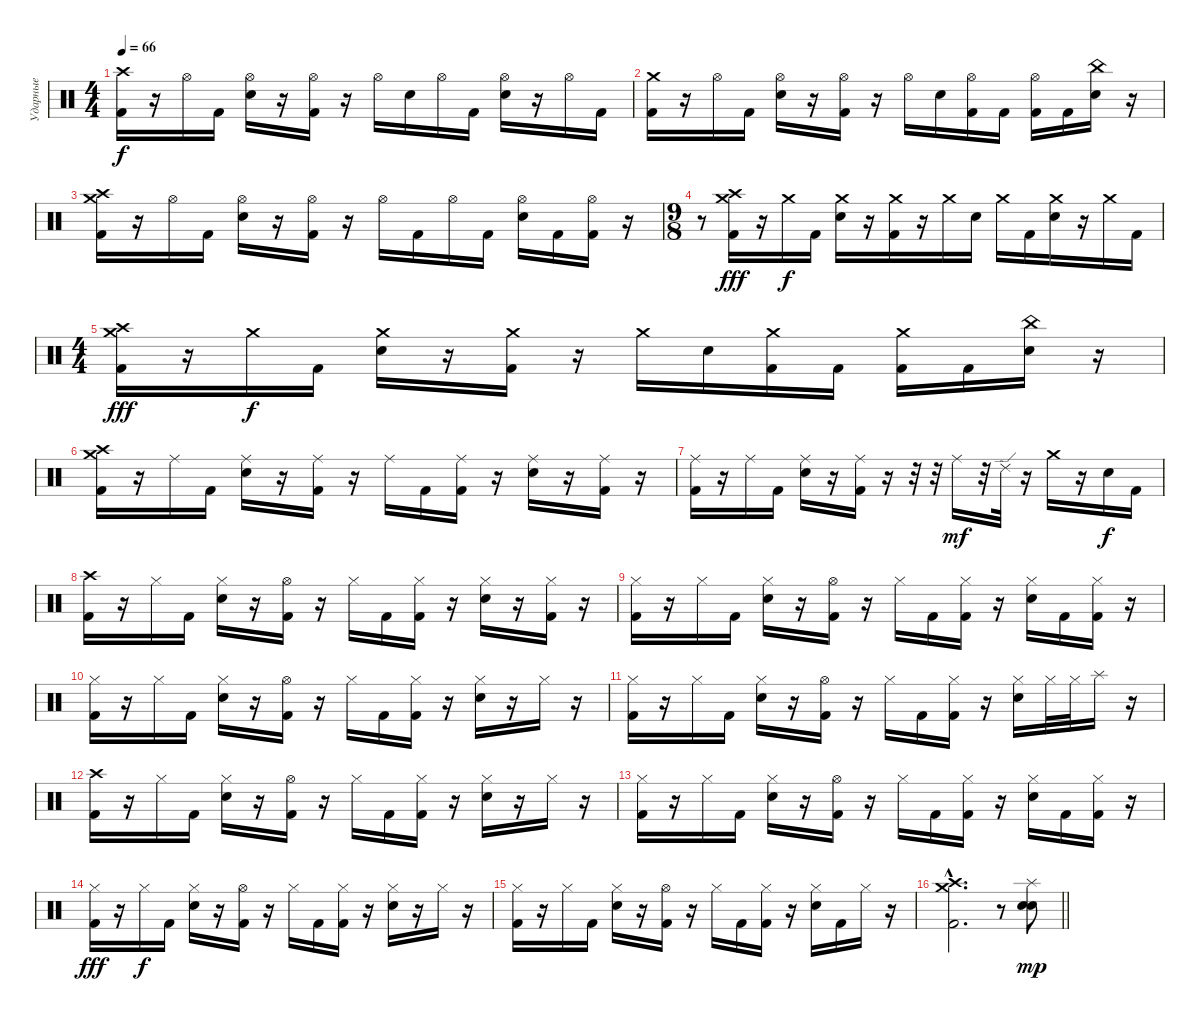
\track ("Ударные" "Ударные") {instrument percussion}
\staff {score}
\articulation defaults
\ts (4 4)
\tempo 66
\clef neutral
\ks c
("Crash high (hit)" "Kick (hit) 2").16{dy f} r.16 "Hi-Hat (open)".16 "Kick (hit) 2".16 ("Hi-Hat (open)" "Electric Snare (hit)").16 r.16 ("Hi-Hat (open)" "Kick (hit) 2").16 r.16 "Hi-Hat (open)".16 "Electric Snare (hit)".16 "Hi-Hat (open)".16 "Kick (hit) 2".16 ("Hi-Hat (open)" "Electric Snare (hit)").16 r.16 "Hi-Hat (open)".16 "Kick (hit) 2".16 |
("Crash medium (hit)" "Kick (hit) 2").16 r.16 "Hi-Hat (open)".16 "Kick (hit) 2".16 ("Hi-Hat (open)" "Electric Snare (hit)").16 r.16 ("Hi-Hat (open)" "Kick (hit) 2").16 r.16 "Hi-Hat (open)".16 "Electric Snare (hit)".16 ("Hi-Hat (open)" "Kick (hit) 2").16 "Kick (hit) 2".16 ("Hi-Hat (open)" "Kick (hit) 2").16 "Kick (hit) 2".16 ("China (hit)" "Electric Snare (hit)").16 r.16 |
("Crash medium (hit)" "Crash high (hit)" "Kick (hit) 2").16 r.16 "Hi-Hat (open)".16 "Kick (hit) 2".16 ("Hi-Hat (open)" "Electric Snare (hit)").16 r.16 ("Hi-Hat (open)" "Kick (hit) 2").16 r.16 "Hi-Hat (open)".16 "Kick (hit) 2".16 "Hi-Hat (open)".16 "Kick (hit) 2".16 ("Hi-Hat (open)" "Electric Snare (hit)").16 "Kick (hit) 2".16 ("Hi-Hat (open)" "Kick (hit) 2").16 r.16 |
\ts (9 8)
r.8 ("Crash medium (hit)" "Crash high (hit)" "Kick (hit) 2").16{dy fff} r.16 "Crash medium (hit)".16{dy f} "Kick (hit) 2".16 ("Crash medium (hit)" "Electric Snare (hit)").16 r.16 ("Crash medium (hit)" "Kick (hit) 2").16 r.16 "Crash medium (hit)".16 "Electric Snare (hit)".16 "Crash medium (hit)".16 "Kick (hit) 2".16 ("Crash medium (hit)" "Electric Snare (hit)").16 r.16 "Crash medium (hit)".16 "Kick (hit) 2".16 |
\ts (4 4)
("Crash medium (hit)" "Crash high (hit)" "Kick (hit) 2").16{dy fff} r.16 "Crash medium (hit)".16{dy f} "Kick (hit) 2".16 ("Crash medium (hit)" "Electric Snare (hit)").16 r.16 ("Crash medium (hit)" "Kick (hit) 2").16 r.16 "Crash medium (hit)".16 "Electric Snare (hit)".16 ("Crash medium (hit)" "Kick (hit) 2").16 "Kick (hit) 2".16 ("Crash medium (hit)" "Kick (hit) 2").16 "Kick (hit) 2".16 ("China (hit)" "Electric Snare (hit)").16 r.16 |
("Crash medium (hit)" "Crash high (hit)" "Kick (hit) 2").16 r.16 "Ride (middle)".16 "Kick (hit) 2".16 ("Ride (middle)" "Electric Snare (hit)").16 r.16 ("Ride (middle)" "Kick (hit) 2").16 r.16 "Ride (middle)".16 "Kick (hit) 2".16 ("Ride (middle)" "Kick (hit) 2").16 r.16 ("Ride (middle)" "Electric Snare (hit)").16 r.16 ("Ride (middle)" "Kick (hit) 2").16 r.16 |
("Ride (middle)" "Kick (hit) 2").16 r.16 "Ride (middle)".16 "Kick (hit) 2".16 ("Ride (middle)" "Electric Snare (hit)").16 r.16 ("Ride (middle)" "Kick (hit) 2").16 r.16 r.32 r.32 "Ride (middle)".16{dy mf} r.32 "Ride (edge) 2".32 r.16 "Crash medium (hit)".16 r.16 "Electric Snare (hit)".16{dy f} "Kick (hit) 2".16 |
("Crash high (hit)" "Kick (hit) 2").16 r.16 "Hi-Hat (closed)".16 "Kick (hit) 2".16 ("Hi-Hat (closed)" "Electric Snare (hit)").16 r.16 ("Hi-Hat (open)" "Kick (hit) 2").16 r.16 "Hi-Hat (closed)".16 "Kick (hit) 2".16 ("Hi-Hat (closed)" "Kick (hit) 2").16 r.16 ("Hi-Hat (closed)" "Electric Snare (hit)").16 r.16 ("Hi-Hat (closed)" "Kick (hit) 2").16 r.16 |
("Hi-Hat (closed)" "Kick (hit) 2").16 r.16 "Hi-Hat (closed)".16 "Kick (hit) 2".16 ("Hi-Hat (closed)" "Electric Snare (hit)").16 r.16 ("Hi-Hat (open)" "Kick (hit) 2").16 r.16 "Hi-Hat (closed)".16 "Kick (hit) 2".16 ("Hi-Hat (closed)" "Kick (hit) 2").16 r.16 ("Hi-Hat (closed)" "Electric Snare (hit)").16 "Kick (hit) 2".16 ("Hi-Hat (closed)" "Kick (hit) 2").16 r.16 |
("Hi-Hat (closed)" "Kick (hit) 2").16 r.16 "Hi-Hat (closed)".16 "Kick (hit) 2".16 ("Hi-Hat (closed)" "Electric Snare (hit)").16 r.16 ("Hi-Hat (open)" "Kick (hit) 2").16 r.16 "Hi-Hat (closed)".16 "Kick (hit) 2".16 ("Hi-Hat (closed)" "Kick (hit) 2").16 r.16 ("Hi-Hat (closed)" "Electric Snare (hit)").16 r.16 "Hi-Hat (closed)".16 r.16 |
("Hi-Hat (closed)" "Kick (hit) 2").16 r.16 "Hi-Hat (closed)".16 "Kick (hit) 2".16 ("Hi-Hat (closed)" "Electric Snare (hit)").16 r.16 ("Hi-Hat (open)" "Kick (hit) 2").16 r.16 "Hi-Hat (closed)".16 "Kick (hit) 2".16 ("Hi-Hat (closed)" "Kick (hit) 2").16 r.16 ("Hi-Hat (closed)" "Electric Snare (hit)").16 "Hi-Hat (closed)".32 "Hi-Hat (closed)".32 "Splash (hit)".16 r.16 |
("Crash high (hit)" "Kick (hit) 2").16 r.16 "Hi-Hat (closed)".16 "Kick (hit) 2".16 ("Hi-Hat (closed)" "Electric Snare (hit)").16 r.16 ("Hi-Hat (open)" "Kick (hit) 2").16 r.16 "Hi-Hat (closed)".16 "Kick (hit) 2".16 ("Hi-Hat (closed)" "Kick (hit) 2").16 r.16 ("Hi-Hat (closed)" "Electric Snare (hit)").16 r.16 "Hi-Hat (closed)".16 r.16 |
("Hi-Hat (closed)" "Kick (hit) 2").16 r.16 "Hi-Hat (closed)".16 "Kick (hit) 2".16 ("Hi-Hat (closed)" "Electric Snare (hit)").16 r.16 ("Hi-Hat (open)" "Kick (hit) 2").16 r.16 "Hi-Hat (closed)".16 "Kick (hit) 2".16 ("Hi-Hat (closed)" "Kick (hit) 2").16 r.16 ("Hi-Hat (closed)" "Electric Snare (hit)").16 "Kick (hit) 2".16 ("Hi-Hat (closed)" "Kick (hit) 2").16 r.16 |
("Hi-Hat (closed)" "Kick (hit) 2").16{dy fff} r.16 "Hi-Hat (closed)".16{dy f} "Kick (hit) 2".16 ("Hi-Hat (closed)" "Electric Snare (hit)").16 r.16 ("Hi-Hat (open)" "Kick (hit) 2").16 r.16 "Hi-Hat (closed)".16 "Kick (hit) 2".16 ("Hi-Hat (closed)" "Kick (hit) 2").16 r.16 ("Hi-Hat (closed)" "Electric Snare (hit)").16 r.16 "Hi-Hat (closed)".16 r.16 |
("Hi-Hat (closed)" "Kick (hit) 2").16 r.16 "Hi-Hat (closed)".16 "Kick (hit) 2".16 ("Hi-Hat (closed)" "Electric Snare (hit)").16 r.16 ("Hi-Hat (open)" "Kick (hit) 2").16 r.16 "Hi-Hat (closed)".16 "Kick (hit) 2".16 ("Hi-Hat (closed)" "Kick (hit) 2").16 r.16 ("Hi-Hat (closed)" "Electric Snare (hit)").16 "Kick (hit) 2".16 "Hi-Hat (closed)".16 r.16 |
\barLineRight lightlight
("Crash medium (hit)"{hac} "Crash high (hit)"{hac} "Kick (hit) 2"{hac}).2{d} r.8 ("Splash (hit)" "Electric Snare (hit)" "Snare (hit) 2").8{dy mp}
